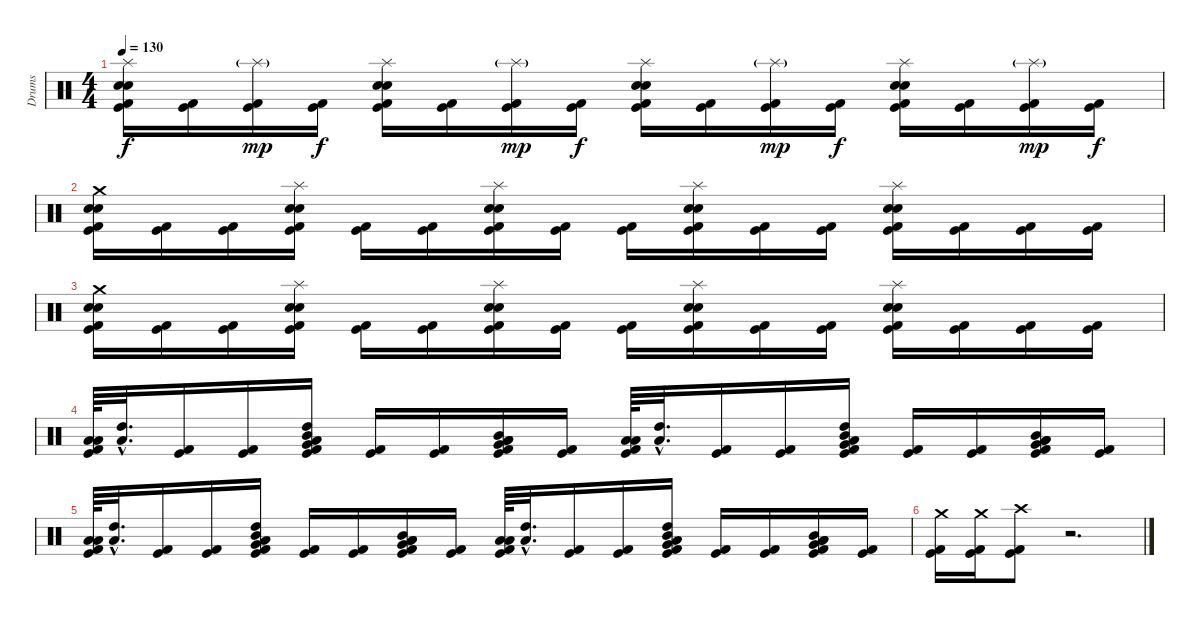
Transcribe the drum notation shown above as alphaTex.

\track ("Drums" "Drums") {instrument percussion}
\staff {score}
\articulation defaults
\ts (4 4)
\tempo 130
\clef neutral
\ks c
("Splash (hit)" "Electric Snare (hit)" "Snare (hit) 2" "Kick (hit) 2" "Kick (hit)").16{dy f} ("Kick (hit) 2" "Kick (hit)").16 ("Splash (hit)"{g} "Kick (hit) 2" "Kick (hit)").16{dy mp} ("Kick (hit) 2" "Kick (hit)").16{dy f} ("Splash (hit)" "Electric Snare (hit)" "Snare (hit) 2" "Kick (hit) 2" "Kick (hit)").16 ("Kick (hit) 2" "Kick (hit)").16 ("Splash (hit)"{g} "Kick (hit) 2" "Kick (hit)").16{dy mp} ("Kick (hit) 2" "Kick (hit)").16{dy f} ("Splash (hit)" "Electric Snare (hit)" "Snare (hit) 2" "Kick (hit) 2" "Kick (hit)").16 ("Kick (hit) 2" "Kick (hit)").16 ("Splash (hit)"{g} "Kick (hit) 2" "Kick (hit)").16{dy mp} ("Kick (hit) 2" "Kick (hit)").16{dy f} ("Splash (hit)" "Electric Snare (hit)" "Snare (hit) 2" "Kick (hit) 2" "Kick (hit)").16 ("Kick (hit) 2" "Kick (hit)").16 ("Splash (hit)"{g} "Kick (hit) 2" "Kick (hit)").16{dy mp} ("Kick (hit) 2" "Kick (hit)").16{dy f} |
("Crash medium (hit)" "Electric Snare (hit)" "Snare (hit) 2" "Kick (hit) 2" "Kick (hit)").16 ("Kick (hit) 2" "Kick (hit)").16 ("Kick (hit) 2" "Kick (hit)").16 ("Splash (hit)" "Electric Snare (hit)" "Snare (hit) 2" "Kick (hit) 2" "Kick (hit)").16 ("Kick (hit) 2" "Kick (hit)").16 ("Kick (hit) 2" "Kick (hit)").16 ("Splash (hit)" "Electric Snare (hit)" "Snare (hit) 2" "Kick (hit) 2" "Kick (hit)").16 ("Kick (hit) 2" "Kick (hit)").16 ("Kick (hit) 2" "Kick (hit)").16 ("Splash (hit)" "Electric Snare (hit)" "Snare (hit) 2" "Kick (hit) 2" "Kick (hit)").16 ("Kick (hit) 2" "Kick (hit)").16 ("Kick (hit) 2" "Kick (hit)").16 ("Splash (hit)" "Electric Snare (hit)" "Snare (hit) 2" "Kick (hit) 2" "Kick (hit)").16 ("Kick (hit) 2" "Kick (hit)").16 ("Kick (hit) 2" "Kick (hit)").16 ("Kick (hit) 2" "Kick (hit)").16 |
("Crash medium (hit)" "Electric Snare (hit)" "Snare (hit) 2" "Kick (hit) 2" "Kick (hit)").16 ("Kick (hit) 2" "Kick (hit)").16 ("Kick (hit) 2" "Kick (hit)").16 ("Splash (hit)" "Electric Snare (hit)" "Snare (hit) 2" "Kick (hit) 2" "Kick (hit)").16 ("Kick (hit) 2" "Kick (hit)").16 ("Kick (hit) 2" "Kick (hit)").16 ("Splash (hit)" "Electric Snare (hit)" "Snare (hit) 2" "Kick (hit) 2" "Kick (hit)").16 ("Kick (hit) 2" "Kick (hit)").16 ("Kick (hit) 2" "Kick (hit)").16 ("Splash (hit)" "Electric Snare (hit)" "Snare (hit) 2" "Kick (hit) 2" "Kick (hit)").16 ("Kick (hit) 2" "Kick (hit)").16 ("Kick (hit) 2" "Kick (hit)").16 ("Splash (hit)" "Electric Snare (hit)" "Snare (hit) 2" "Kick (hit) 2" "Kick (hit)").16 ("Kick (hit) 2" "Kick (hit)").16 ("Kick (hit) 2" "Kick (hit)").16 ("Kick (hit) 2" "Kick (hit)").16 |
("Low Tom (hit)" "Low Floor Tom (hit)" "Kick (hit) 2" "Kick (hit)").64 ("High Tom (hit)"{hac} "Low Tom (hit)"{hac}).32{d} ("Kick (hit) 2" "Kick (hit)").16 ("Kick (hit) 2" "Kick (hit)").16 ("High Tom (hit)" "Low Tom (hit)" "Mid Tom (hit)" "Very Low Tom (hit)" "Kick (hit) 2" "Kick (hit)").16 ("Kick (hit) 2" "Kick (hit)").16 ("Kick (hit) 2" "Kick (hit)").16 ("Mid Tom (hit)" "Very Low Tom (hit)" "Low Tom (hit)" "Low Floor Tom (hit)" "Kick (hit) 2" "Kick (hit)").16 ("Kick (hit) 2" "Kick (hit)").16 ("Low Tom (hit)" "Low Floor Tom (hit)" "Kick (hit) 2" "Kick (hit)").64 ("High Tom (hit)"{hac} "Low Tom (hit)"{hac}).32{d} ("Kick (hit) 2" "Kick (hit)").16 ("Kick (hit) 2" "Kick (hit)").16 ("High Tom (hit)" "Low Tom (hit)" "Mid Tom (hit)" "Very Low Tom (hit)" "Kick (hit) 2" "Kick (hit)").16 ("Kick (hit) 2" "Kick (hit)").16 ("Kick (hit) 2" "Kick (hit)").16 ("Mid Tom (hit)" "Very Low Tom (hit)" "Low Tom (hit)" "Low Floor Tom (hit)" "Kick (hit) 2" "Kick (hit)").16 ("Kick (hit) 2" "Kick (hit)").16 |
("Low Tom (hit)" "Low Floor Tom (hit)" "Kick (hit) 2" "Kick (hit)").64 ("High Tom (hit)"{hac} "Low Tom (hit)"{hac}).32{d} ("Kick (hit) 2" "Kick (hit)").16 ("Kick (hit) 2" "Kick (hit)").16 ("High Tom (hit)" "Low Tom (hit)" "Mid Tom (hit)" "Very Low Tom (hit)" "Kick (hit) 2" "Kick (hit)").16 ("Kick (hit) 2" "Kick (hit)").16 ("Kick (hit) 2" "Kick (hit)").16 ("Mid Tom (hit)" "Very Low Tom (hit)" "Low Tom (hit)" "Low Floor Tom (hit)" "Kick (hit) 2" "Kick (hit)").16 ("Kick (hit) 2" "Kick (hit)").16 ("Low Tom (hit)" "Low Floor Tom (hit)" "Kick (hit) 2" "Kick (hit)").64 ("High Tom (hit)"{hac} "Low Tom (hit)"{hac}).32{d} ("Kick (hit) 2" "Kick (hit)").16 ("Kick (hit) 2" "Kick (hit)").16 ("High Tom (hit)" "Low Tom (hit)" "Mid Tom (hit)" "Very Low Tom (hit)" "Kick (hit) 2" "Kick (hit)").16 ("Kick (hit) 2" "Kick (hit)").16 ("Kick (hit) 2" "Kick (hit)").16 ("Mid Tom (hit)" "Very Low Tom (hit)" "Low Tom (hit)" "Low Floor Tom (hit)" "Kick (hit) 2" "Kick (hit)").16 ("Kick (hit) 2" "Kick (hit)").16 |
("Crash medium (hit)" "Kick (hit) 2" "Kick (hit)").16 ("Crash medium (hit)" "Kick (hit) 2" "Kick (hit)").16 ("Crash high (hit)" "Kick (hit) 2" "Kick (hit)").8 r.2{d}
